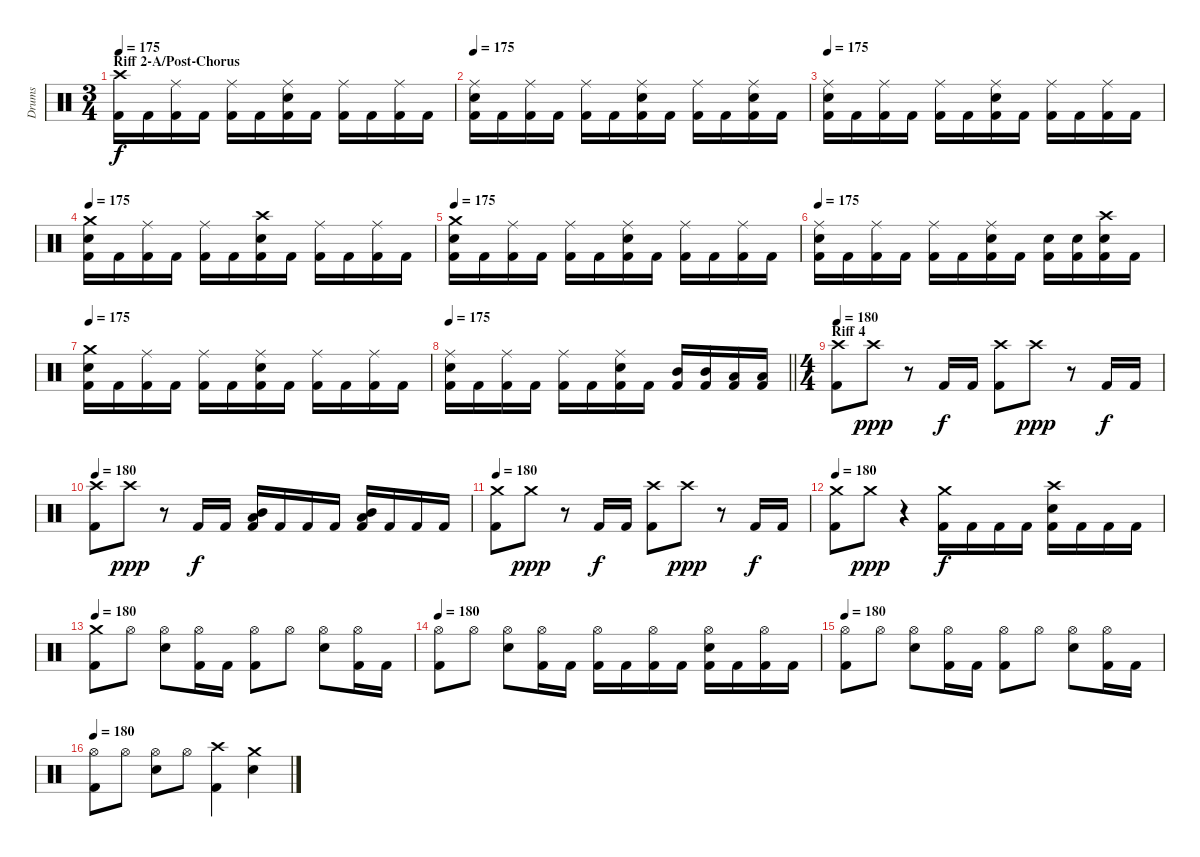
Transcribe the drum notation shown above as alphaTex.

\track ("Drums" "Drums") {instrument percussion}
\staff {score}
\articulation defaults
\ts (3 4)
\section ("" "Riff 2-A/Post-Chorus")
\tempo 175
\clef neutral
\ks c
("Crash high (hit)" "Kick (hit) 2").16{dy f} "Kick (hit) 2".16 ("Ride (middle)" "Kick (hit) 2").16 "Kick (hit) 2".16 ("Ride (middle)" "Kick (hit) 2").16 "Kick (hit) 2".16 ("Ride (middle)" "Electric Snare (hit)" "Kick (hit) 2").16 "Kick (hit) 2".16 ("Ride (middle)" "Kick (hit) 2").16 "Kick (hit) 2".16 ("Ride (middle)" "Kick (hit) 2").16 "Kick (hit) 2".16 |
\tempo 175
("Ride (middle)" "Electric Snare (hit)" "Kick (hit) 2").16 "Kick (hit) 2".16 ("Ride (middle)" "Kick (hit) 2").16 "Kick (hit) 2".16 ("Ride (middle)" "Kick (hit) 2").16 "Kick (hit) 2".16 ("Ride (middle)" "Electric Snare (hit)" "Kick (hit) 2").16 "Kick (hit) 2".16 ("Ride (middle)" "Kick (hit) 2").16 "Kick (hit) 2".16 ("Ride (middle)" "Electric Snare (hit)" "Kick (hit) 2").16 "Kick (hit) 2".16 |
\tempo 175
("Ride (middle)" "Electric Snare (hit)" "Kick (hit) 2").16 "Kick (hit) 2".16 ("Ride (middle)" "Kick (hit) 2").16 "Kick (hit) 2".16 ("Ride (middle)" "Kick (hit) 2").16 "Kick (hit) 2".16 ("Ride (middle)" "Electric Snare (hit)" "Kick (hit) 2").16 "Kick (hit) 2".16 ("Ride (middle)" "Kick (hit) 2").16 "Kick (hit) 2".16 ("Ride (middle)" "Kick (hit) 2").16 "Kick (hit) 2".16 |
\tempo 175
("Crash medium (hit)" "Electric Snare (hit)" "Kick (hit) 2").16 "Kick (hit) 2".16 ("Ride (middle)" "Kick (hit) 2").16 "Kick (hit) 2".16 ("Ride (middle)" "Kick (hit) 2").16 "Kick (hit) 2".16 ("Crash high (hit)" "Electric Snare (hit)" "Kick (hit) 2").16 "Kick (hit) 2".16 ("Ride (middle)" "Kick (hit) 2").16 "Kick (hit) 2".16 ("Ride (middle)" "Kick (hit) 2").16 "Kick (hit) 2".16 |
\tempo 175
("Crash medium (hit)" "Electric Snare (hit)" "Kick (hit) 2").16 "Kick (hit) 2".16 ("Ride (middle)" "Kick (hit) 2").16 "Kick (hit) 2".16 ("Ride (middle)" "Kick (hit) 2").16 "Kick (hit) 2".16 ("Ride (middle)" "Electric Snare (hit)" "Kick (hit) 2").16 "Kick (hit) 2".16 ("Ride (middle)" "Kick (hit) 2").16 "Kick (hit) 2".16 ("Ride (middle)" "Kick (hit) 2").16 "Kick (hit) 2".16 |
\tempo 175
("Ride (middle)" "Electric Snare (hit)" "Kick (hit) 2").16 "Kick (hit) 2".16 ("Ride (middle)" "Kick (hit) 2").16 "Kick (hit) 2".16 ("Ride (middle)" "Kick (hit) 2").16 "Kick (hit) 2".16 ("Ride (middle)" "Electric Snare (hit)" "Kick (hit) 2").16 "Kick (hit) 2".16 ("Electric Snare (hit)" "Kick (hit) 2").16 ("Electric Snare (hit)" "Kick (hit) 2").16 ("Crash high (hit)" "Electric Snare (hit)" "Kick (hit) 2").16 "Kick (hit) 2".16 |
\tempo 175
("Crash medium (hit)" "Electric Snare (hit)" "Kick (hit) 2").16 "Kick (hit) 2".16 ("Ride (middle)" "Kick (hit) 2").16 "Kick (hit) 2".16 ("Ride (middle)" "Kick (hit) 2").16 "Kick (hit) 2".16 ("Ride (middle)" "Electric Snare (hit)" "Kick (hit) 2").16 "Kick (hit) 2".16 ("Ride (middle)" "Kick (hit) 2").16 "Kick (hit) 2".16 ("Ride (middle)" "Kick (hit) 2").16 "Kick (hit) 2".16 |
\tempo 175
\barLineRight lightlight
("Ride (middle)" "Electric Snare (hit)" "Kick (hit) 2").16 "Kick (hit) 2".16 ("Ride (middle)" "Kick (hit) 2").16 "Kick (hit) 2".16 ("Ride (middle)" "Kick (hit) 2").16 "Kick (hit) 2".16 ("Ride (middle)" "Electric Snare (hit)" "Kick (hit) 2").16 "Kick (hit) 2".16 ("Mid Tom (hit)" "Kick (hit) 2").16 ("Mid Tom (hit)" "Kick (hit) 2").16 ("Low Tom (hit)" "Kick (hit) 2").16 ("Low Tom (hit)" "Kick (hit) 2").16 |
\ts (4 4)
\section ("" "Riff 4")
\tempo 180
("Crash high (hit)" "Kick (hit) 2").8 "Crash high (hit)".8{dy ppp} r.8 "Kick (hit) 2".16{dy f} "Kick (hit) 2".16 ("Crash high (hit)" "Kick (hit) 2").8 "Crash high (hit)".8{dy ppp} r.8 "Kick (hit) 2".16{dy f} "Kick (hit) 2".16 |
\tempo 180
("Crash high (hit)" "Kick (hit) 2").8 "Crash high (hit)".8{dy ppp} r.8 "Kick (hit) 2".16{dy f} "Kick (hit) 2".16 ("Mid Tom (hit)" "Low Tom (hit)" "Kick (hit) 2").16 "Kick (hit) 2".16 "Kick (hit) 2".16 "Kick (hit) 2".16 ("Mid Tom (hit)" "Low Tom (hit)" "Kick (hit) 2").16 "Kick (hit) 2".16 "Kick (hit) 2".16 "Kick (hit) 2".16 |
\tempo 180
("Crash medium (hit)" "Kick (hit) 2").8 "Crash medium (hit)".8{dy ppp} r.8 "Kick (hit) 2".16{dy f} "Kick (hit) 2".16 ("Crash high (hit)" "Kick (hit) 2").8 "Crash high (hit)".8{dy ppp} r.8 "Kick (hit) 2".16{dy f} "Kick (hit) 2".16 |
\tempo 180
("Crash medium (hit)" "Kick (hit) 2").8 "Crash medium (hit)".8{dy ppp} r.4 ("Crash medium (hit)" "Kick (hit) 2").16{dy f} "Kick (hit) 2".16 "Kick (hit) 2".16 "Kick (hit) 2".16 ("Crash high (hit)" "Electric Snare (hit)" "Kick (hit) 2").16 "Kick (hit) 2".16 "Kick (hit) 2".16 "Kick (hit) 2".16 |
\tempo 180
("Crash medium (hit)" "Kick (hit) 2").8 "Hi-Hat (open)".8 ("Hi-Hat (open)" "Electric Snare (hit)").8 ("Hi-Hat (open)" "Kick (hit) 2").16 "Kick (hit) 2".16 ("Hi-Hat (open)" "Kick (hit) 2").8 "Hi-Hat (open)".8 ("Hi-Hat (open)" "Electric Snare (hit)").8 ("Hi-Hat (open)" "Kick (hit) 2").16 "Kick (hit) 2".16 |
\tempo 180
("Hi-Hat (open)" "Kick (hit) 2").8 "Hi-Hat (open)".8 ("Hi-Hat (open)" "Electric Snare (hit)").8 ("Hi-Hat (open)" "Kick (hit) 2").16 "Kick (hit) 2".16 ("Hi-Hat (open)" "Kick (hit) 2").16 "Kick (hit) 2".16 ("Hi-Hat (open)" "Kick (hit) 2").16 "Kick (hit) 2".16 ("Hi-Hat (open)" "Electric Snare (hit)" "Kick (hit) 2").16 "Kick (hit) 2".16 ("Hi-Hat (open)" "Kick (hit) 2").16 "Kick (hit) 2".16 |
\tempo 180
("Hi-Hat (open)" "Kick (hit) 2").8 "Hi-Hat (open)".8 ("Hi-Hat (open)" "Electric Snare (hit)").8 ("Hi-Hat (open)" "Kick (hit) 2").16 "Kick (hit) 2".16 ("Hi-Hat (open)" "Kick (hit) 2").8 "Hi-Hat (open)".8 ("Hi-Hat (open)" "Electric Snare (hit)").8 ("Hi-Hat (open)" "Kick (hit) 2").16 "Kick (hit) 2".16 |
\tempo 180
("Hi-Hat (open)" "Kick (hit) 2").8 "Hi-Hat (open)".8 ("Hi-Hat (open)" "Electric Snare (hit)").8 "Hi-Hat (open)".8 ("Crash high (hit)" "Kick (hit) 2").4 ("Crash medium (hit)" "Electric Snare (hit)").4
